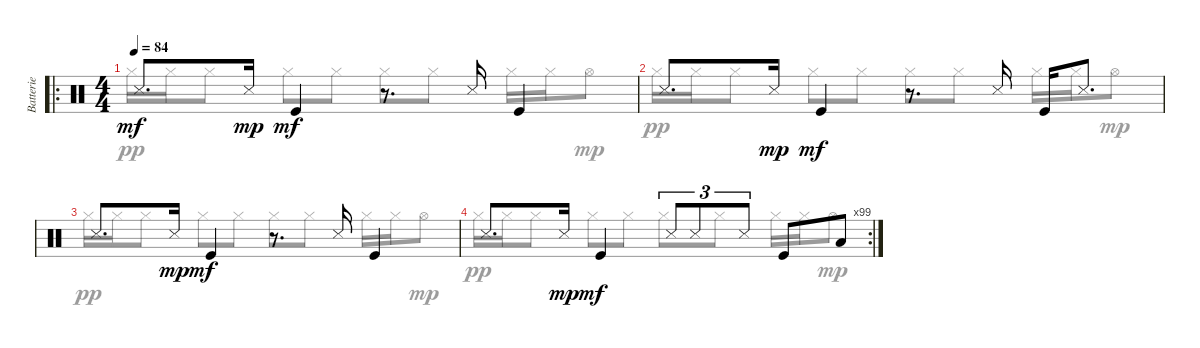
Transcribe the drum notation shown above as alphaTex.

\track ("Batterie" "Batterie") {solo instrument percussion}
\staff {score}
\articulation defaults
\voice
\ro
\ts (4 4)
\tempo 84
\clef neutral
\ks c "Snare (side stick) 3".8{d dy mf} "Snare (side stick) 3".16{dy mp} "Kick (hit)".4{dy mf}
r.8{d} "Snare (side stick) 3".16 "Kick (hit)".4 |
"Snare (side stick) 3".8{d} "Snare (side stick) 3".16{dy mp} "Kick (hit)".4{dy mf} r.8{d} "Snare (side stick) 3".16 "Kick (hit)".16 "Snare (side stick) 3".8{d} |
"Snare (side stick) 3".8{d} "Snare (side stick) 3".16{dy mp} "Kick (hit)".4{dy mf} r.8{d} "Snare (side stick) 3".16 "Kick (hit)".4 |
\rc 99 "Snare (side stick) 3".8{d} "Snare (side stick) 3".16{dy mp} "Kick (hit)".4{dy mf} "Snare (side stick) 3".8{tu (3 2)} "Snare (side stick) 3".8{tu (3 2)} "Snare (side stick) 3".8{tu (3 2)} "Kick (hit)".8 "Low Tom (hit)".8
\voice
\clef neutral
\ottava regular
\simile none
\ks c "Hi-Hat (closed)".16{dy pp} "Hi-Hat (closed)".16 "Hi-Hat (closed)".8 "Hi-Hat (closed)".8 "Hi-Hat (closed)".8 "Hi-Hat (closed)".8 "Hi-Hat (closed)".8 "Hi-Hat (closed)".16 "Hi-Hat (closed)".16 "Hi-Hat (open)".8{dy mp}
|
"Hi-Hat (closed)".16{dy pp} "Hi-Hat (closed)".16 "Hi-Hat (closed)".8 "Hi-Hat (closed)".8 "Hi-Hat (closed)".8 "Hi-Hat (closed)".8 "Hi-Hat (closed)".8 "Hi-Hat (closed)".16 "Hi-Hat (closed)".16 "Hi-Hat (open)".8{dy mp} |
"Hi-Hat (closed)".16{dy pp} "Hi-Hat (closed)".16 "Hi-Hat (closed)".8 "Hi-Hat (closed)".8 "Hi-Hat (closed)".8 "Hi-Hat (closed)".8 "Hi-Hat (closed)".8 "Hi-Hat (closed)".16 "Hi-Hat (closed)".16 "Hi-Hat (open)".8{dy mp} |
"Hi-Hat (closed)".16{dy pp} "Hi-Hat (closed)".16 "Hi-Hat (closed)".8 "Hi-Hat (closed)".8 "Hi-Hat (closed)".8 "Hi-Hat (closed)".8 "Hi-Hat (closed)".8 "Hi-Hat (closed)".16 "Hi-Hat (closed)".16 "Hi-Hat (open)".8{dy mp}
